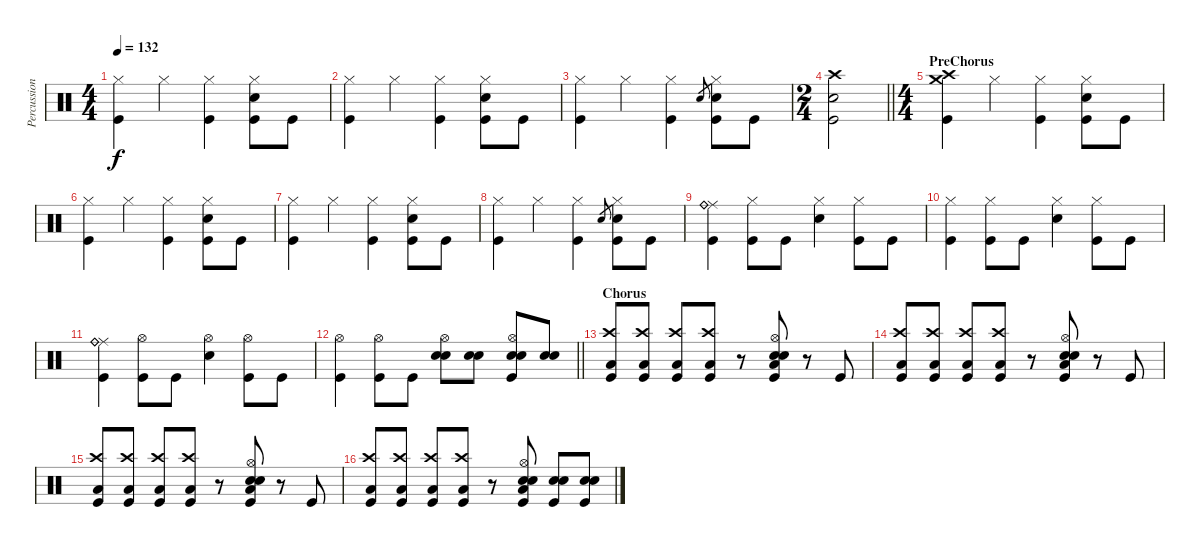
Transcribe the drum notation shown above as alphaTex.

\track ("Percussion" "Percussion") {instrument percussion}
\staff {score}
\articulation defaults
\ts (4 4)
\tempo 132
\clef neutral
\ks c
("Hi-Hat (closed)" "Kick (hit)").4{dy f} "Hi-Hat (closed)".4 ("Hi-Hat (closed)" "Kick (hit)").4 ("Hi-Hat (closed)" "Electric Snare (hit)" "Kick (hit)").8 "Kick (hit)".8 |
("Hi-Hat (closed)" "Kick (hit)").4 "Hi-Hat (closed)".4 ("Hi-Hat (closed)" "Kick (hit)").4 ("Hi-Hat (closed)" "Electric Snare (hit)" "Kick (hit)").8 "Kick (hit)".8 |
("Hi-Hat (closed)" "Kick (hit)").4 "Hi-Hat (closed)".4 ("Hi-Hat (closed)" "Kick (hit)").4 "Electric Snare (hit)".8{gr} ("Hi-Hat (closed)" "Electric Snare (hit)" "Kick (hit)").8 "Kick (hit)".8 |
\ts (2 4)
\barLineRight lightlight
("Crash high (hit)" "Electric Snare (hit)" "Kick (hit)").2 |
\ts (4 4)
\section ("" "PreChorus")
("Crash high (hit)" "Crash medium (hit)" "Kick (hit)").4 "Hi-Hat (closed)".4 ("Hi-Hat (closed)" "Kick (hit)").4 ("Hi-Hat (closed)" "Electric Snare (hit)" "Kick (hit)").8 "Kick (hit)".8 |
("Hi-Hat (closed)" "Kick (hit)").4 "Hi-Hat (closed)".4 ("Hi-Hat (closed)" "Kick (hit)").4 ("Hi-Hat (closed)" "Electric Snare (hit)" "Kick (hit)").8 "Kick (hit)".8 |
("Hi-Hat (closed)" "Kick (hit)").4 "Hi-Hat (closed)".4 ("Hi-Hat (closed)" "Kick (hit)").4 ("Hi-Hat (closed)" "Electric Snare (hit)" "Kick (hit)").8 "Kick (hit)".8 |
("Hi-Hat (closed)" "Kick (hit)").4 "Hi-Hat (closed)".4 ("Hi-Hat (closed)" "Kick (hit)").4 "Electric Snare (hit)".8{gr} ("Hi-Hat (closed)" "Electric Snare (hit)" "Kick (hit)").8 "Kick (hit)".8 |
("Ride (middle)" "Ride (bell)" "Ride (bell)" "Kick (hit)").4 ("Hi-Hat (closed)" "Kick (hit)").8 "Kick (hit)".8 ("Hi-Hat (closed)" "Electric Snare (hit)").4 ("Hi-Hat (closed)" "Kick (hit)").8 "Kick (hit)".8 |
("Hi-Hat (closed)" "Kick (hit)").4 ("Hi-Hat (closed)" "Kick (hit)").8 "Kick (hit)".8 ("Hi-Hat (closed)" "Electric Snare (hit)").4 ("Hi-Hat (closed)" "Kick (hit)").8 "Kick (hit)".8 |
("Ride (middle)" "Ride (bell)" "Ride (bell)" "Kick (hit)").4 ("Hi-Hat (open)" "Kick (hit)").8 "Kick (hit)".8 ("Hi-Hat (open)" "Electric Snare (hit)").4 ("Hi-Hat (open)" "Kick (hit)").8 "Kick (hit)".8 |
\barLineRight lightlight
("Hi-Hat (open)" "Kick (hit)").4 ("Hi-Hat (open)" "Kick (hit)").8 "Kick (hit)".8 ("Hi-Hat (open)" "Electric Snare (hit)" "Snare (hit) 2").8 ("Electric Snare (hit)" "Snare (hit) 2").8 ("Hi-Hat (open)" "Electric Snare (hit)" "Snare (hit) 2" "Kick (hit)").8 ("Electric Snare (hit)" "Snare (hit) 2").8 |
\section ("" "Chorus")
("Crash high (hit)" "Low Floor Tom (hit)" "Kick (hit)").8 ("Crash high (hit)" "Low Floor Tom (hit)" "Kick (hit)").8 ("Crash high (hit)" "Low Floor Tom (hit)" "Kick (hit)").8 ("Crash high (hit)" "Low Floor Tom (hit)" "Kick (hit)").8 r.8 ("Hi-Hat (open)" "Electric Snare (hit)" "Snare (hit) 2" "Low Floor Tom (hit)" "Kick (hit)").8 r.8 "Kick (hit)".8 |
("Crash high (hit)" "Low Floor Tom (hit)" "Kick (hit)").8 ("Crash high (hit)" "Low Floor Tom (hit)" "Kick (hit)").8 ("Crash high (hit)" "Low Floor Tom (hit)" "Kick (hit)").8 ("Crash high (hit)" "Low Floor Tom (hit)" "Kick (hit)").8 r.8 ("Hi-Hat (open)" "Electric Snare (hit)" "Snare (hit) 2" "Low Floor Tom (hit)" "Kick (hit)").8 r.8 "Kick (hit)".8 |
("Crash high (hit)" "Low Floor Tom (hit)" "Kick (hit)").8 ("Crash high (hit)" "Low Floor Tom (hit)" "Kick (hit)").8 ("Crash high (hit)" "Low Floor Tom (hit)" "Kick (hit)").8 ("Crash high (hit)" "Low Floor Tom (hit)" "Kick (hit)").8 r.8 ("Hi-Hat (open)" "Electric Snare (hit)" "Snare (hit) 2" "Low Floor Tom (hit)" "Kick (hit)").8 r.8 "Kick (hit)".8 |
("Crash high (hit)" "Low Floor Tom (hit)" "Kick (hit)").8 ("Crash high (hit)" "Low Floor Tom (hit)" "Kick (hit)").8 ("Crash high (hit)" "Low Floor Tom (hit)" "Kick (hit)").8 ("Crash high (hit)" "Low Floor Tom (hit)" "Kick (hit)").8 r.8 ("Hi-Hat (open)" "Electric Snare (hit)" "Snare (hit) 2" "Low Floor Tom (hit)" "Kick (hit)").8 ("Electric Snare (hit)" "Snare (hit) 2" "Kick (hit)").8 ("Electric Snare (hit)" "Snare (hit) 2" "Kick (hit)").8
